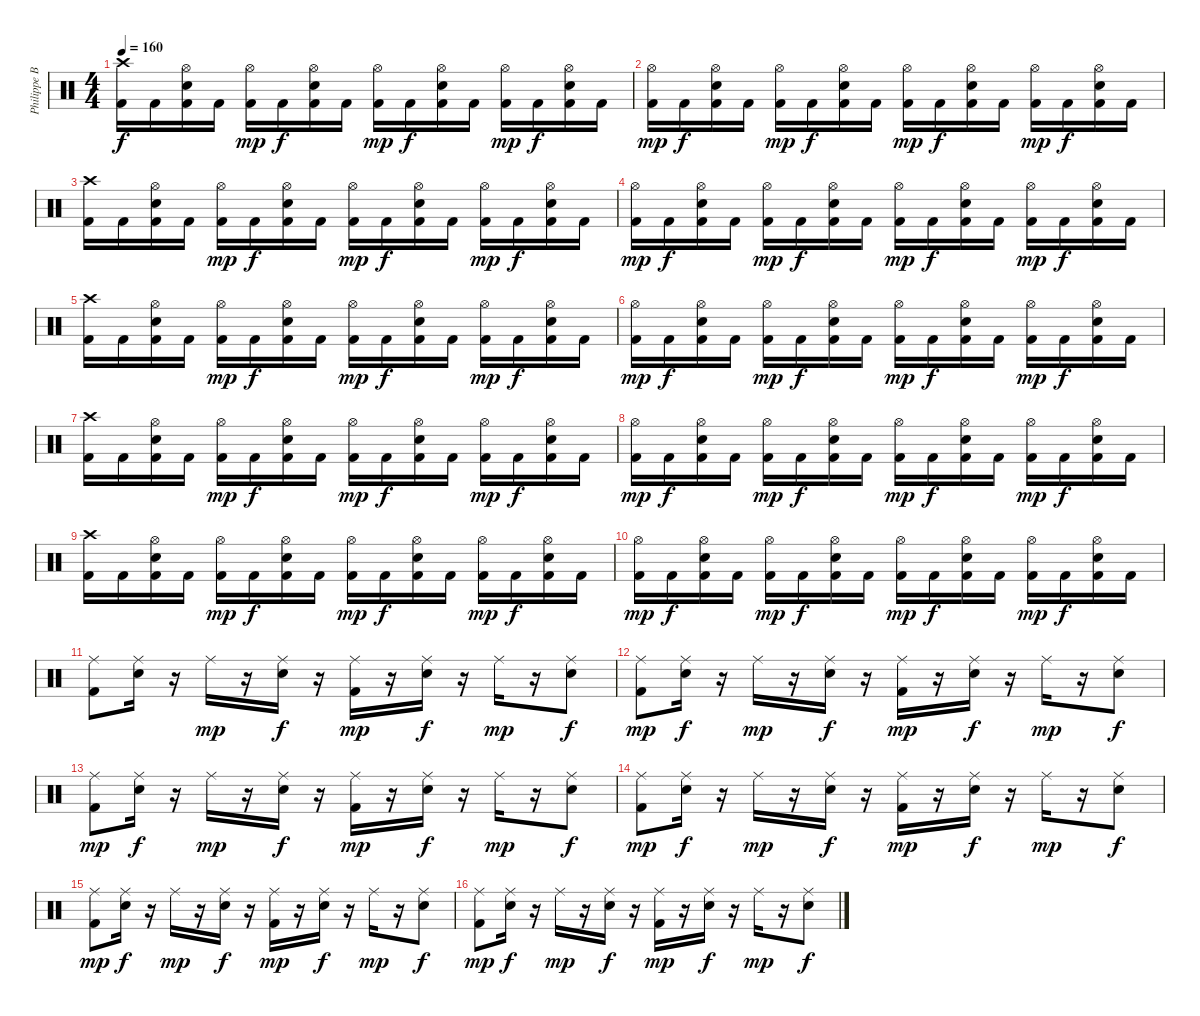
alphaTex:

\track ("Philippe Borda" "Philippe B") {instrument percussion}
\staff {score}
\articulation defaults
\ts (4 4)
\tempo 160
\clef neutral
\ks c
("Kick (hit) 2" "Crash high (hit)").16{dy f} "Kick (hit) 2".16 ("Kick (hit) 2" "Snare (hit) 2" "Hi-Hat (open)").16 "Kick (hit) 2".16 ("Kick (hit) 2" "Hi-Hat (open)").16{dy mp} "Kick (hit) 2".16{dy f} ("Kick (hit) 2" "Snare (hit) 2" "Hi-Hat (open)").16 "Kick (hit) 2".16 ("Kick (hit) 2" "Hi-Hat (open)").16{dy mp} "Kick (hit) 2".16{dy f} ("Kick (hit) 2" "Snare (hit) 2" "Hi-Hat (open)").16 "Kick (hit) 2".16 ("Kick (hit) 2" "Hi-Hat (open)").16{dy mp} "Kick (hit) 2".16{dy f} ("Kick (hit) 2" "Snare (hit) 2" "Hi-Hat (open)").16 "Kick (hit) 2".16 |
("Kick (hit) 2" "Hi-Hat (open)").16{dy mp} "Kick (hit) 2".16{dy f} ("Kick (hit) 2" "Snare (hit) 2" "Hi-Hat (open)").16 "Kick (hit) 2".16 ("Kick (hit) 2" "Hi-Hat (open)").16{dy mp} "Kick (hit) 2".16{dy f} ("Kick (hit) 2" "Snare (hit) 2" "Hi-Hat (open)").16 "Kick (hit) 2".16 ("Kick (hit) 2" "Hi-Hat (open)").16{dy mp} "Kick (hit) 2".16{dy f} ("Kick (hit) 2" "Snare (hit) 2" "Hi-Hat (open)").16 "Kick (hit) 2".16 ("Kick (hit) 2" "Hi-Hat (open)").16{dy mp} "Kick (hit) 2".16{dy f} ("Kick (hit) 2" "Snare (hit) 2" "Hi-Hat (open)").16 "Kick (hit) 2".16 |
("Kick (hit) 2" "Crash high (hit)").16 "Kick (hit) 2".16 ("Kick (hit) 2" "Snare (hit) 2" "Hi-Hat (open)").16 "Kick (hit) 2".16 ("Kick (hit) 2" "Hi-Hat (open)").16{dy mp} "Kick (hit) 2".16{dy f} ("Kick (hit) 2" "Snare (hit) 2" "Hi-Hat (open)").16 "Kick (hit) 2".16 ("Kick (hit) 2" "Hi-Hat (open)").16{dy mp} "Kick (hit) 2".16{dy f} ("Kick (hit) 2" "Snare (hit) 2" "Hi-Hat (open)").16 "Kick (hit) 2".16 ("Kick (hit) 2" "Hi-Hat (open)").16{dy mp} "Kick (hit) 2".16{dy f} ("Kick (hit) 2" "Snare (hit) 2" "Hi-Hat (open)").16 "Kick (hit) 2".16 |
("Kick (hit) 2" "Hi-Hat (open)").16{dy mp} "Kick (hit) 2".16{dy f} ("Kick (hit) 2" "Snare (hit) 2" "Hi-Hat (open)").16 "Kick (hit) 2".16 ("Kick (hit) 2" "Hi-Hat (open)").16{dy mp} "Kick (hit) 2".16{dy f} ("Kick (hit) 2" "Snare (hit) 2" "Hi-Hat (open)").16 "Kick (hit) 2".16 ("Kick (hit) 2" "Hi-Hat (open)").16{dy mp} "Kick (hit) 2".16{dy f} ("Kick (hit) 2" "Snare (hit) 2" "Hi-Hat (open)").16 "Kick (hit) 2".16 ("Kick (hit) 2" "Hi-Hat (open)").16{dy mp} "Kick (hit) 2".16{dy f} ("Kick (hit) 2" "Snare (hit) 2" "Hi-Hat (open)").16 "Kick (hit) 2".16 |
("Kick (hit) 2" "Crash high (hit)").16 "Kick (hit) 2".16 ("Kick (hit) 2" "Snare (hit) 2" "Hi-Hat (open)").16 "Kick (hit) 2".16 ("Kick (hit) 2" "Hi-Hat (open)").16{dy mp} "Kick (hit) 2".16{dy f} ("Kick (hit) 2" "Snare (hit) 2" "Hi-Hat (open)").16 "Kick (hit) 2".16 ("Kick (hit) 2" "Hi-Hat (open)").16{dy mp} "Kick (hit) 2".16{dy f} ("Kick (hit) 2" "Snare (hit) 2" "Hi-Hat (open)").16 "Kick (hit) 2".16 ("Kick (hit) 2" "Hi-Hat (open)").16{dy mp} "Kick (hit) 2".16{dy f} ("Kick (hit) 2" "Snare (hit) 2" "Hi-Hat (open)").16 "Kick (hit) 2".16 |
("Kick (hit) 2" "Hi-Hat (open)").16{dy mp} "Kick (hit) 2".16{dy f} ("Kick (hit) 2" "Snare (hit) 2" "Hi-Hat (open)").16 "Kick (hit) 2".16 ("Kick (hit) 2" "Hi-Hat (open)").16{dy mp} "Kick (hit) 2".16{dy f} ("Kick (hit) 2" "Snare (hit) 2" "Hi-Hat (open)").16 "Kick (hit) 2".16 ("Kick (hit) 2" "Hi-Hat (open)").16{dy mp} "Kick (hit) 2".16{dy f} ("Kick (hit) 2" "Snare (hit) 2" "Hi-Hat (open)").16 "Kick (hit) 2".16 ("Kick (hit) 2" "Hi-Hat (open)").16{dy mp} "Kick (hit) 2".16{dy f} ("Kick (hit) 2" "Snare (hit) 2" "Hi-Hat (open)").16 "Kick (hit) 2".16 |
("Kick (hit) 2" "Crash high (hit)").16 "Kick (hit) 2".16 ("Kick (hit) 2" "Snare (hit) 2" "Hi-Hat (open)").16 "Kick (hit) 2".16 ("Kick (hit) 2" "Hi-Hat (open)").16{dy mp} "Kick (hit) 2".16{dy f} ("Kick (hit) 2" "Snare (hit) 2" "Hi-Hat (open)").16 "Kick (hit) 2".16 ("Kick (hit) 2" "Hi-Hat (open)").16{dy mp} "Kick (hit) 2".16{dy f} ("Kick (hit) 2" "Snare (hit) 2" "Hi-Hat (open)").16 "Kick (hit) 2".16 ("Kick (hit) 2" "Hi-Hat (open)").16{dy mp} "Kick (hit) 2".16{dy f} ("Kick (hit) 2" "Snare (hit) 2" "Hi-Hat (open)").16 "Kick (hit) 2".16 |
("Kick (hit) 2" "Hi-Hat (open)").16{dy mp} "Kick (hit) 2".16{dy f} ("Kick (hit) 2" "Snare (hit) 2" "Hi-Hat (open)").16 "Kick (hit) 2".16 ("Kick (hit) 2" "Hi-Hat (open)").16{dy mp} "Kick (hit) 2".16{dy f} ("Kick (hit) 2" "Snare (hit) 2" "Hi-Hat (open)").16 "Kick (hit) 2".16 ("Kick (hit) 2" "Hi-Hat (open)").16{dy mp} "Kick (hit) 2".16{dy f} ("Kick (hit) 2" "Snare (hit) 2" "Hi-Hat (open)").16 "Kick (hit) 2".16 ("Kick (hit) 2" "Hi-Hat (open)").16{dy mp} "Kick (hit) 2".16{dy f} ("Kick (hit) 2" "Snare (hit) 2" "Hi-Hat (open)").16 "Kick (hit) 2".16 |
("Kick (hit) 2" "Crash high (hit)").16 "Kick (hit) 2".16 ("Kick (hit) 2" "Snare (hit) 2" "Hi-Hat (open)").16 "Kick (hit) 2".16 ("Kick (hit) 2" "Hi-Hat (open)").16{dy mp} "Kick (hit) 2".16{dy f} ("Kick (hit) 2" "Snare (hit) 2" "Hi-Hat (open)").16 "Kick (hit) 2".16 ("Kick (hit) 2" "Hi-Hat (open)").16{dy mp} "Kick (hit) 2".16{dy f} ("Kick (hit) 2" "Snare (hit) 2" "Hi-Hat (open)").16 "Kick (hit) 2".16 ("Kick (hit) 2" "Hi-Hat (open)").16{dy mp} "Kick (hit) 2".16{dy f} ("Kick (hit) 2" "Snare (hit) 2" "Hi-Hat (open)").16 "Kick (hit) 2".16 |
("Kick (hit) 2" "Hi-Hat (open)").16{dy mp} "Kick (hit) 2".16{dy f} ("Kick (hit) 2" "Snare (hit) 2" "Hi-Hat (open)").16 "Kick (hit) 2".16 ("Kick (hit) 2" "Hi-Hat (open)").16{dy mp} "Kick (hit) 2".16{dy f} ("Kick (hit) 2" "Snare (hit) 2" "Hi-Hat (open)").16 "Kick (hit) 2".16 ("Kick (hit) 2" "Hi-Hat (open)").16{dy mp} "Kick (hit) 2".16{dy f} ("Kick (hit) 2" "Snare (hit) 2" "Hi-Hat (open)").16 "Kick (hit) 2".16 ("Kick (hit) 2" "Hi-Hat (open)").16{dy mp} "Kick (hit) 2".16{dy f} ("Kick (hit) 2" "Snare (hit) 2" "Hi-Hat (open)").16 "Kick (hit) 2".16 |
("Kick (hit) 2" "Ride (middle)").8 ("Snare (hit) 2" "Ride (middle)").16 r.16 "Ride (middle)".16{dy mp} r.16 ("Snare (hit) 2" "Ride (middle)").16{dy f} r.16 ("Kick (hit) 2" "Ride (middle)").16{dy mp} r.16 ("Snare (hit) 2" "Ride (middle)").16{dy f} r.16 "Ride (middle)".16{dy mp} r.16 ("Snare (hit) 2" "Ride (middle)").8{dy f} |
("Kick (hit) 2" "Ride (middle)").8{dy mp} ("Snare (hit) 2" "Ride (middle)").16{dy f} r.16 "Ride (middle)".16{dy mp} r.16 ("Snare (hit) 2" "Ride (middle)").16{dy f} r.16 ("Kick (hit) 2" "Ride (middle)").16{dy mp} r.16 ("Snare (hit) 2" "Ride (middle)").16{dy f} r.16 "Ride (middle)".16{dy mp} r.16 ("Snare (hit) 2" "Ride (middle)").8{dy f} |
("Kick (hit) 2" "Ride (middle)").8{dy mp} ("Snare (hit) 2" "Ride (middle)").16{dy f} r.16 "Ride (middle)".16{dy mp} r.16 ("Snare (hit) 2" "Ride (middle)").16{dy f} r.16 ("Kick (hit) 2" "Ride (middle)").16{dy mp} r.16 ("Snare (hit) 2" "Ride (middle)").16{dy f} r.16 "Ride (middle)".16{dy mp} r.16 ("Snare (hit) 2" "Ride (middle)").8{dy f} |
("Kick (hit) 2" "Ride (middle)").8{dy mp} ("Snare (hit) 2" "Ride (middle)").16{dy f} r.16 "Ride (middle)".16{dy mp} r.16 ("Snare (hit) 2" "Ride (middle)").16{dy f} r.16 ("Kick (hit) 2" "Ride (middle)").16{dy mp} r.16 ("Snare (hit) 2" "Ride (middle)").16{dy f} r.16 "Ride (middle)".16{dy mp} r.16 ("Snare (hit) 2" "Ride (middle)").8{dy f} |
("Kick (hit) 2" "Ride (middle)").8{dy mp} ("Snare (hit) 2" "Ride (middle)").16{dy f} r.16 "Ride (middle)".16{dy mp} r.16 ("Snare (hit) 2" "Ride (middle)").16{dy f} r.16 ("Kick (hit) 2" "Ride (middle)").16{dy mp} r.16 ("Snare (hit) 2" "Ride (middle)").16{dy f} r.16 "Ride (middle)".16{dy mp} r.16 ("Snare (hit) 2" "Ride (middle)").8{dy f} |
("Kick (hit) 2" "Ride (middle)").8{dy mp} ("Snare (hit) 2" "Ride (middle)").16{dy f} r.16 "Ride (middle)".16{dy mp} r.16 ("Snare (hit) 2" "Ride (middle)").16{dy f} r.16 ("Kick (hit) 2" "Ride (middle)").16{dy mp} r.16 ("Snare (hit) 2" "Ride (middle)").16{dy f} r.16 "Ride (middle)".16{dy mp} r.16 ("Snare (hit) 2" "Ride (middle)").8{dy f}
